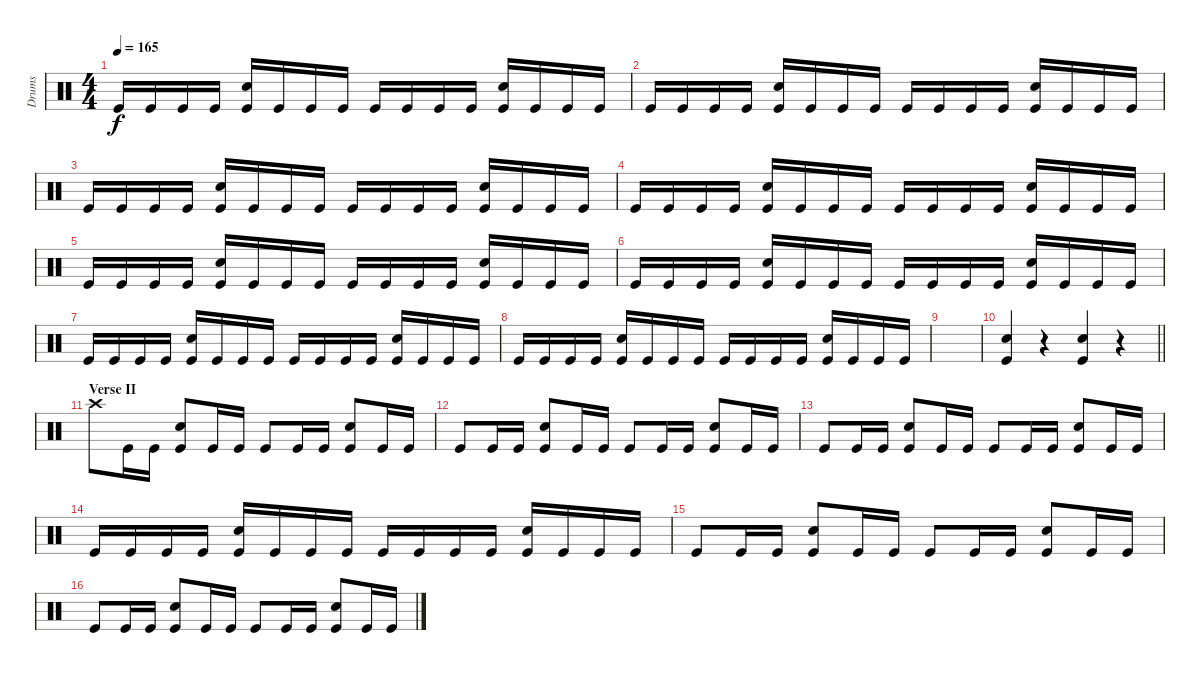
\track ("Drums" "Drums") {instrument percussion}
\staff {score}
\articulation defaults
\ts (4 4)
\tempo 165
\clef neutral
\ks c "Kick (hit)".16{dy f} "Kick (hit)".16 "Kick (hit)".16 "Kick (hit)".16
("Kick (hit)" "Snare (hit) 2").16 "Kick (hit)".16 "Kick (hit)".16 "Kick (hit)".16 "Kick (hit)".16 "Kick (hit)".16 "Kick (hit)".16 "Kick (hit)".16 ("Kick (hit)" "Snare (hit) 2").16 "Kick (hit)".16 "Kick (hit)".16 "Kick (hit)".16 |
"Kick (hit)".16 "Kick (hit)".16 "Kick (hit)".16 "Kick (hit)".16 ("Kick (hit)" "Snare (hit) 2").16 "Kick (hit)".16 "Kick (hit)".16 "Kick (hit)".16 "Kick (hit)".16 "Kick (hit)".16 "Kick (hit)".16 "Kick (hit)".16 ("Kick (hit)" "Snare (hit) 2").16 "Kick (hit)".16 "Kick (hit)".16 "Kick (hit)".16 |
"Kick (hit)".16 "Kick (hit)".16 "Kick (hit)".16 "Kick (hit)".16 ("Kick (hit)" "Snare (hit) 2").16 "Kick (hit)".16 "Kick (hit)".16 "Kick (hit)".16 "Kick (hit)".16 "Kick (hit)".16 "Kick (hit)".16 "Kick (hit)".16 ("Kick (hit)" "Snare (hit) 2").16 "Kick (hit)".16 "Kick (hit)".16 "Kick (hit)".16 |
"Kick (hit)".16 "Kick (hit)".16 "Kick (hit)".16 "Kick (hit)".16 ("Kick (hit)" "Snare (hit) 2").16 "Kick (hit)".16 "Kick (hit)".16 "Kick (hit)".16 "Kick (hit)".16 "Kick (hit)".16 "Kick (hit)".16 "Kick (hit)".16 ("Kick (hit)" "Snare (hit) 2").16 "Kick (hit)".16 "Kick (hit)".16 "Kick (hit)".16 |
"Kick (hit)".16 "Kick (hit)".16 "Kick (hit)".16 "Kick (hit)".16 ("Kick (hit)" "Snare (hit) 2").16 "Kick (hit)".16 "Kick (hit)".16 "Kick (hit)".16 "Kick (hit)".16 "Kick (hit)".16 "Kick (hit)".16 "Kick (hit)".16 ("Kick (hit)" "Snare (hit) 2").16 "Kick (hit)".16 "Kick (hit)".16 "Kick (hit)".16 |
"Kick (hit)".16 "Kick (hit)".16 "Kick (hit)".16 "Kick (hit)".16 ("Kick (hit)" "Snare (hit) 2").16 "Kick (hit)".16 "Kick (hit)".16 "Kick (hit)".16 "Kick (hit)".16 "Kick (hit)".16 "Kick (hit)".16 "Kick (hit)".16 ("Kick (hit)" "Snare (hit) 2").16 "Kick (hit)".16 "Kick (hit)".16 "Kick (hit)".16 |
"Kick (hit)".16 "Kick (hit)".16 "Kick (hit)".16 "Kick (hit)".16 ("Kick (hit)" "Snare (hit) 2").16 "Kick (hit)".16 "Kick (hit)".16 "Kick (hit)".16 "Kick (hit)".16 "Kick (hit)".16 "Kick (hit)".16 "Kick (hit)".16 ("Kick (hit)" "Snare (hit) 2").16 "Kick (hit)".16 "Kick (hit)".16 "Kick (hit)".16 |
"Kick (hit)".16 "Kick (hit)".16 "Kick (hit)".16 "Kick (hit)".16 ("Kick (hit)" "Snare (hit) 2").16 "Kick (hit)".16 "Kick (hit)".16 "Kick (hit)".16 "Kick (hit)".16 "Kick (hit)".16 "Kick (hit)".16 "Kick (hit)".16 ("Kick (hit)" "Snare (hit) 2").16 "Kick (hit)".16 "Kick (hit)".16 "Kick (hit)".16 |
|
\barLineRight lightlight
("Kick (hit)" "Snare (hit) 2").4 r.4 ("Kick (hit)" "Snare (hit) 2").4 r.4 |
\section ("" "Verse II")
"Crash high (hit)".8 "Kick (hit)".16 "Kick (hit)".16 ("Kick (hit)" "Snare (hit) 2").8 "Kick (hit)".16 "Kick (hit)".16 "Kick (hit)".8 "Kick (hit)".16 "Kick (hit)".16 ("Kick (hit)" "Snare (hit) 2").8 "Kick (hit)".16 "Kick (hit)".16 |
"Kick (hit)".8 "Kick (hit)".16 "Kick (hit)".16 ("Kick (hit)" "Snare (hit) 2").8 "Kick (hit)".16 "Kick (hit)".16 "Kick (hit)".8 "Kick (hit)".16 "Kick (hit)".16 ("Kick (hit)" "Snare (hit) 2").8 "Kick (hit)".16 "Kick (hit)".16 |
"Kick (hit)".8 "Kick (hit)".16 "Kick (hit)".16 ("Kick (hit)" "Snare (hit) 2").8 "Kick (hit)".16 "Kick (hit)".16 "Kick (hit)".8 "Kick (hit)".16 "Kick (hit)".16 ("Kick (hit)" "Snare (hit) 2").8 "Kick (hit)".16 "Kick (hit)".16 |
"Kick (hit)".16 "Kick (hit)".16 "Kick (hit)".16 "Kick (hit)".16 ("Kick (hit)" "Snare (hit) 2").16 "Kick (hit)".16 "Kick (hit)".16 "Kick (hit)".16 "Kick (hit)".16 "Kick (hit)".16 "Kick (hit)".16 "Kick (hit)".16 ("Kick (hit)" "Snare (hit) 2").16 "Kick (hit)".16 "Kick (hit)".16 "Kick (hit)".16 |
"Kick (hit)".8 "Kick (hit)".16 "Kick (hit)".16 ("Kick (hit)" "Snare (hit) 2").8 "Kick (hit)".16 "Kick (hit)".16 "Kick (hit)".8 "Kick (hit)".16 "Kick (hit)".16 ("Kick (hit)" "Snare (hit) 2").8 "Kick (hit)".16 "Kick (hit)".16 |
"Kick (hit)".8 "Kick (hit)".16 "Kick (hit)".16 ("Kick (hit)" "Snare (hit) 2").8 "Kick (hit)".16 "Kick (hit)".16 "Kick (hit)".8 "Kick (hit)".16 "Kick (hit)".16 ("Kick (hit)" "Snare (hit) 2").8 "Kick (hit)".16 "Kick (hit)".16
